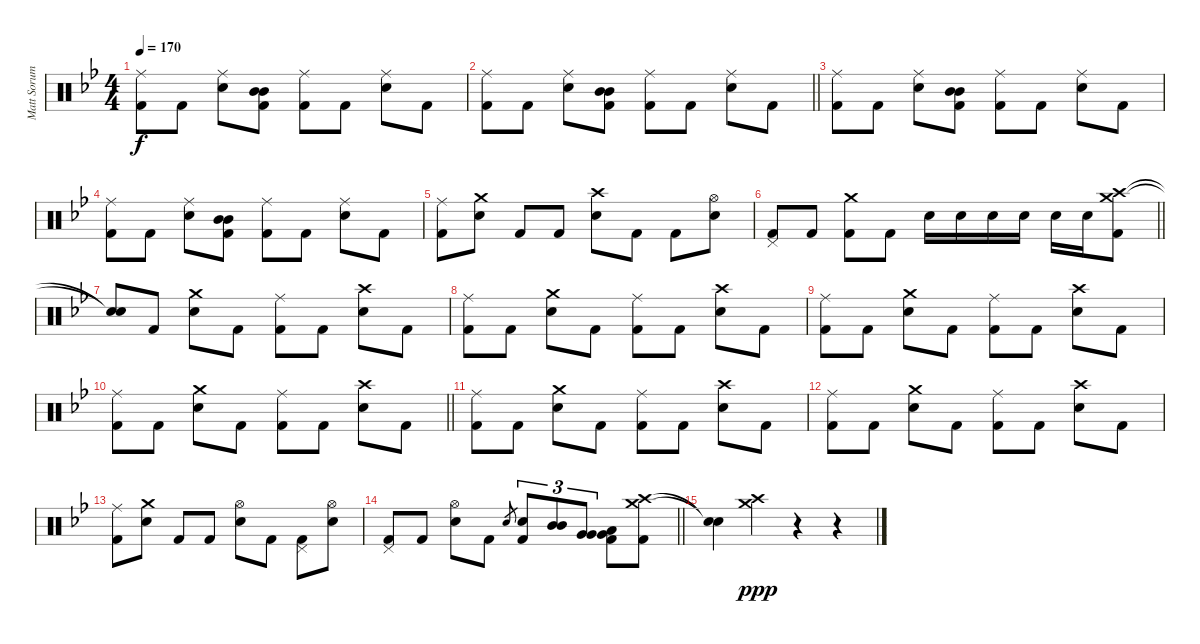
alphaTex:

\track ("Matt Sorum - Drums" "Matt Sorum") {instrument percussion}
\staff {score}
\articulation defaults
\ts (4 4)
\tempo 170
\clef neutral
\ks bb
("Ride (middle)" "Kick (hit) 2").8{dy f} "Kick (hit) 2".8 ("Ride (middle)" "Snare (hit) 2").8 ("Mid Tom (hit)" "Mid Tom (hit)" "Kick (hit) 2").8 ("Ride (middle)" "Kick (hit) 2").8 "Kick (hit) 2".8 ("Ride (middle)" "Snare (hit) 2").8 "Kick (hit) 2".8 |
\barLineRight lightlight
("Ride (middle)" "Kick (hit) 2").8 "Kick (hit) 2".8 ("Ride (middle)" "Snare (hit) 2").8 ("Mid Tom (hit)" "Mid Tom (hit)" "Kick (hit) 2").8 ("Ride (middle)" "Kick (hit) 2").8 "Kick (hit) 2".8 ("Ride (middle)" "Snare (hit) 2").8 "Kick (hit) 2".8 |
("Ride (middle)" "Kick (hit) 2").8 "Kick (hit) 2".8 ("Ride (middle)" "Snare (hit) 2").8 ("Mid Tom (hit)" "Mid Tom (hit)" "Kick (hit) 2").8 ("Ride (middle)" "Kick (hit) 2").8 "Kick (hit) 2".8 ("Ride (middle)" "Snare (hit) 2").8 "Kick (hit) 2".8 |
("Ride (middle)" "Kick (hit) 2").8 "Kick (hit) 2".8 ("Ride (middle)" "Snare (hit) 2").8 ("Mid Tom (hit)" "Mid Tom (hit)" "Kick (hit) 2").8 ("Ride (middle)" "Kick (hit) 2").8 "Kick (hit) 2".8 ("Ride (middle)" "Snare (hit) 2").8 "Kick (hit) 2".8 |
("Ride (middle)" "Kick (hit) 2").8 ("Crash medium (hit)" "Snare (hit) 2").8 "Kick (hit) 2".8 "Kick (hit) 2".8 ("Crash high (hit)" "Snare (hit) 2").8 "Kick (hit) 2".8 "Kick (hit) 2".8 ("Hi-Hat (open)" "Snare (hit) 2").8 |
\barLineRight lightlight
("Pedal Hi-Hat (hit)" "Kick (hit) 2").8 "Kick (hit) 2".8 ("Crash medium (hit)" "Kick (hit) 2").8 "Kick (hit) 2".8 "Snare (hit) 2".16 "Snare (hit) 2".16 "Snare (hit) 2".16 "Snare (hit) 2".16 "Snare (hit) 2".16 "Snare (hit) 2".16 ("Crash medium (hit)" "Crash high (hit)" "Kick (hit) 2").8 |
("Snare (hit)"{t} "Snare (hit)"{t}).8 "Kick (hit) 2".8 ("Crash medium (hit)" "Snare (hit) 2").8 "Kick (hit) 2".8 ("Ride (middle)" "Kick (hit) 2").8 "Kick (hit) 2".8 ("Crash high (hit)" "Snare (hit) 2").8 "Kick (hit) 2".8 |
("Ride (middle)" "Kick (hit) 2").8 "Kick (hit) 2".8 ("Crash medium (hit)" "Snare (hit) 2").8 "Kick (hit) 2".8 ("Ride (middle)" "Kick (hit) 2").8 "Kick (hit) 2".8 ("Crash high (hit)" "Snare (hit) 2").8 "Kick (hit) 2".8 |
("Ride (middle)" "Kick (hit) 2").8 "Kick (hit) 2".8 ("Crash medium (hit)" "Snare (hit) 2").8 "Kick (hit) 2".8 ("Ride (middle)" "Kick (hit) 2").8 "Kick (hit) 2".8 ("Crash high (hit)" "Snare (hit) 2").8 "Kick (hit) 2".8 |
\barLineRight lightlight
("Ride (middle)" "Kick (hit) 2").8 "Kick (hit) 2".8 ("Crash medium (hit)" "Snare (hit) 2").8 "Kick (hit) 2".8 ("Ride (middle)" "Kick (hit) 2").8 "Kick (hit) 2".8 ("Crash high (hit)" "Snare (hit) 2").8 "Kick (hit) 2".8 |
("Ride (middle)" "Kick (hit) 2").8 "Kick (hit) 2".8 ("Crash medium (hit)" "Snare (hit) 2").8 "Kick (hit) 2".8 ("Ride (middle)" "Kick (hit) 2").8 "Kick (hit) 2".8 ("Crash high (hit)" "Snare (hit) 2").8 "Kick (hit) 2".8 |
("Ride (middle)" "Kick (hit) 2").8 "Kick (hit) 2".8 ("Crash medium (hit)" "Snare (hit) 2").8 "Kick (hit) 2".8 ("Ride (middle)" "Kick (hit) 2").8 "Kick (hit) 2".8 ("Crash high (hit)" "Snare (hit) 2").8 "Kick (hit) 2".8 |
("Ride (middle)" "Kick (hit) 2").8 ("Crash medium (hit)" "Snare (hit) 2").8 "Kick (hit) 2".8 "Kick (hit) 2".8 ("Hi-Hat (open)" "Snare (hit) 2").8 "Kick (hit) 2".8 ("Pedal Hi-Hat (hit)" "Kick (hit) 2").8 ("Hi-Hat (open)" "Snare (hit) 2").8 |
\barLineRight lightlight
("Pedal Hi-Hat (hit)" "Kick (hit) 2").8 "Kick (hit) 2".8 ("Hi-Hat (open)" "Snare (hit) 2").8 "Kick (hit) 2".8 "Snare (hit) 2".8{gr} ("Snare (hit) 2" "Kick (hit) 2").8{tu (3 2)} ("Mid Tom (hit)" "Mid Tom (hit)").8{tu (3 2)} ("Very Low Tom (hit)" "Very Low Tom (hit)").8{tu (3 2)} ("Very Low Tom (hit)" "Low Floor Tom (hit)" "Kick (hit) 2").8 ("Crash medium (hit)" "Crash high (hit)" "Kick (hit) 2").8 |
("Snare (hit)"{t} "Snare (hit)"{t}).4 ("Crash medium (hit)" "Crash high (hit)").4{dy ppp} r.4 r.4
